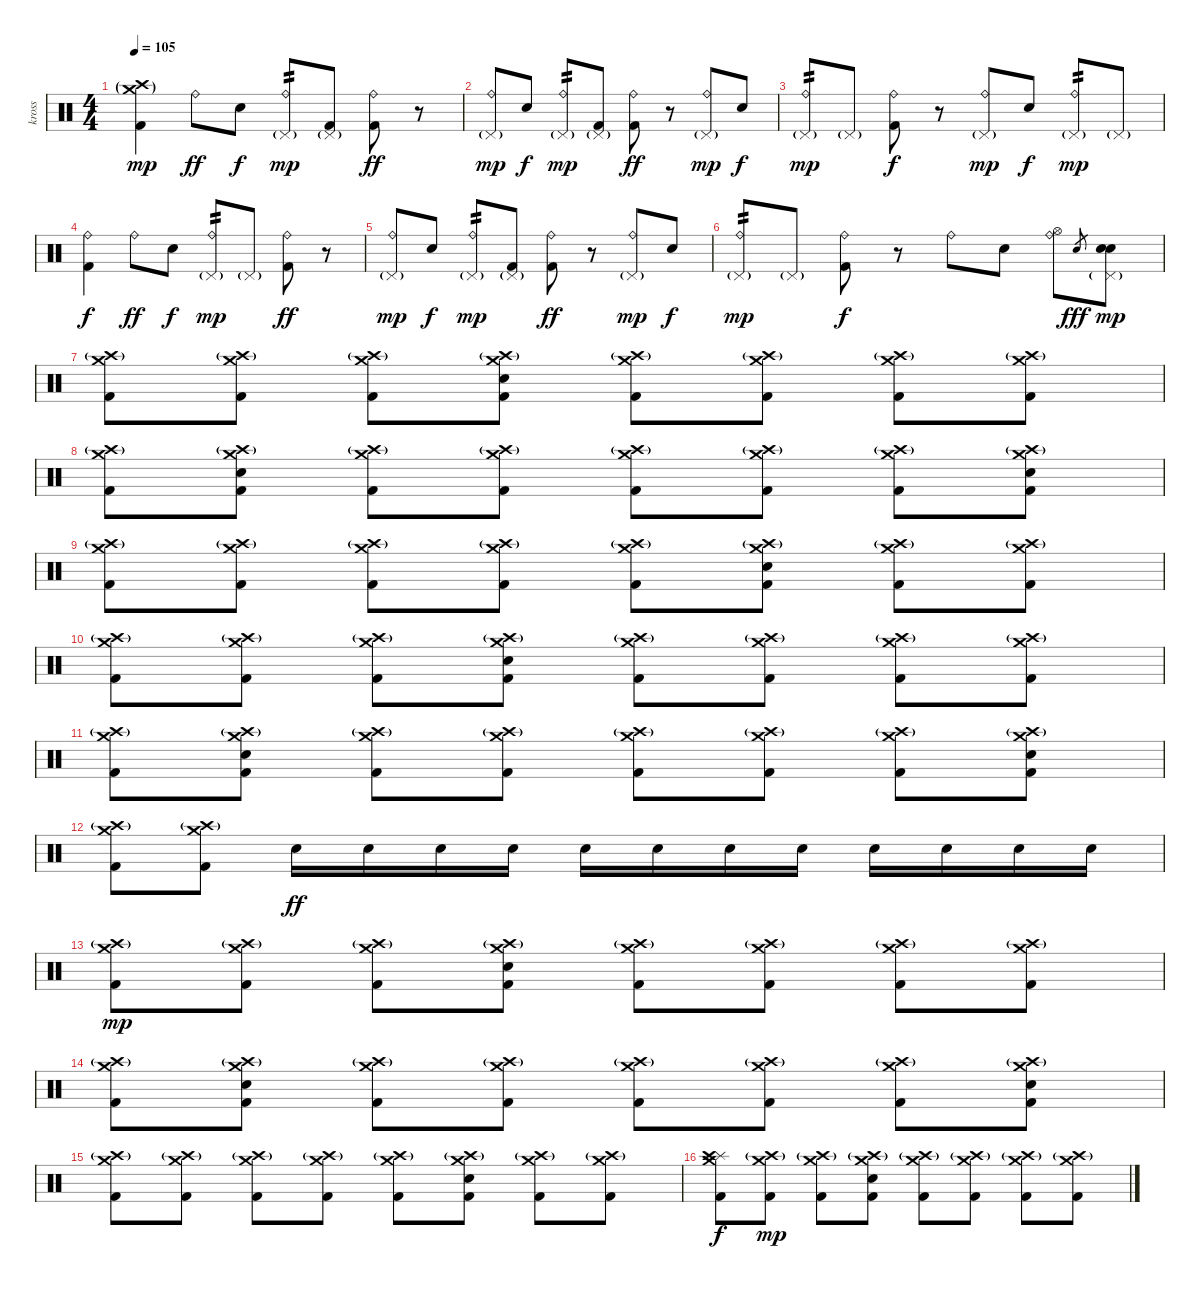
\track ("kross" "kross") {instrument percussion}
\staff {score}
\articulation defaults
\ts (4 4)
\tempo 105
\clef neutral
\ks c
("Crash medium (hit)"{g} "Crash high (hit)"{g} "Kick (hit) 2").4{dy mp} "Ride (bell)".8{dy ff} "Electric Snare (hit)".8{dy f} ("Ride (bell)" "Pedal Hi-Hat (hit)"{g}).8{tp 2 dy mp} ("Pedal Hi-Hat (hit)"{g} "Kick (hit) 2").8 ("Ride (bell)" "Kick (hit) 2").8{dy ff} r.8 |
("Ride (bell)" "Pedal Hi-Hat (hit)"{g}).8{dy mp} "Electric Snare (hit)".8{dy f} ("Ride (bell)" "Pedal Hi-Hat (hit)"{g}).8{tp 2 dy mp} ("Pedal Hi-Hat (hit)"{g} "Kick (hit) 2").8 ("Ride (bell)" "Kick (hit) 2").8{dy ff} r.8 ("Ride (bell)" "Pedal Hi-Hat (hit)"{g}).8{dy mp} "Electric Snare (hit)".8{dy f} |
("Ride (bell)" "Pedal Hi-Hat (hit)"{g}).8{tp 2 dy mp} "Pedal Hi-Hat (hit)"{g}.8 ("Ride (bell)" "Kick (hit) 2").8{dy f} r.8 ("Ride (bell)" "Pedal Hi-Hat (hit)"{g}).8{dy mp} "Electric Snare (hit)".8{dy f} ("Ride (bell)" "Pedal Hi-Hat (hit)"{g}).8{tp 2 dy mp} "Pedal Hi-Hat (hit)"{g}.8 |
("Ride (bell)" "Kick (hit) 2").4{dy f} "Ride (bell)".8{dy ff} "Electric Snare (hit)".8{dy f} ("Ride (bell)" "Pedal Hi-Hat (hit)"{g}).8{tp 2 dy mp} "Pedal Hi-Hat (hit)"{g}.8 ("Ride (bell)" "Kick (hit) 2").8{dy ff} r.8 |
("Ride (bell)" "Pedal Hi-Hat (hit)"{g}).8{dy mp} "Electric Snare (hit)".8{dy f} ("Ride (bell)" "Pedal Hi-Hat (hit)"{g}).8{tp 2 dy mp} ("Pedal Hi-Hat (hit)"{g} "Kick (hit) 2").8 ("Ride (bell)" "Kick (hit) 2").8{dy ff} r.8 ("Ride (bell)" "Pedal Hi-Hat (hit)"{g}).8{dy mp} "Electric Snare (hit)".8{dy f} |
("Ride (bell)" "Pedal Hi-Hat (hit)"{g}).8{tp 2 dy mp} "Pedal Hi-Hat (hit)"{g}.8 ("Ride (bell)" "Kick (hit) 2").8{dy f} r.8 "Ride (bell)".8 "Electric Snare (hit)".8 ("Ride (bell)" "Hi-Hat (open)").8 "Electric Snare (hit)".8{gr dy fff} ("Pedal Hi-Hat (hit)"{g} "Electric Snare (hit)" "Electric Snare (hit)").8{dy mp} |
("Crash medium (hit)" "Crash high (hit)"{g} "Kick (hit) 2").8 ("Crash medium (hit)" "Crash high (hit)"{g} "Kick (hit) 2").8 ("Crash medium (hit)" "Crash high (hit)"{g} "Kick (hit) 2").8 ("Crash medium (hit)" "Crash high (hit)"{g} "Electric Snare (hit)" "Kick (hit) 2").8 ("Crash medium (hit)" "Crash high (hit)"{g} "Kick (hit) 2").8 ("Crash medium (hit)" "Crash high (hit)"{g} "Kick (hit) 2").8 ("Crash medium (hit)" "Crash high (hit)"{g} "Kick (hit) 2").8 ("Crash medium (hit)" "Crash high (hit)"{g} "Kick (hit) 2").8 |
("Crash medium (hit)" "Crash high (hit)"{g} "Kick (hit) 2").8 ("Crash medium (hit)" "Crash high (hit)"{g} "Electric Snare (hit)" "Kick (hit) 2").8 ("Crash medium (hit)" "Crash high (hit)"{g} "Kick (hit) 2").8 ("Crash medium (hit)" "Crash high (hit)"{g} "Kick (hit) 2").8 ("Crash medium (hit)" "Crash high (hit)"{g} "Kick (hit) 2").8 ("Crash medium (hit)" "Crash high (hit)"{g} "Kick (hit) 2").8 ("Crash medium (hit)" "Crash high (hit)"{g} "Kick (hit) 2").8 ("Crash medium (hit)" "Crash high (hit)"{g} "Electric Snare (hit)" "Kick (hit) 2").8 |
("Crash medium (hit)" "Crash high (hit)"{g} "Kick (hit) 2").8 ("Crash medium (hit)" "Crash high (hit)"{g} "Kick (hit) 2").8 ("Crash medium (hit)" "Crash high (hit)"{g} "Kick (hit) 2").8 ("Crash medium (hit)" "Crash high (hit)"{g} "Kick (hit) 2").8 ("Crash medium (hit)" "Crash high (hit)"{g} "Kick (hit) 2").8 ("Crash medium (hit)" "Crash high (hit)"{g} "Electric Snare (hit)" "Kick (hit) 2").8 ("Crash medium (hit)" "Crash high (hit)"{g} "Kick (hit) 2").8 ("Crash medium (hit)" "Crash high (hit)"{g} "Kick (hit) 2").8 |
("Crash medium (hit)" "Crash high (hit)"{g} "Kick (hit) 2").8 ("Crash medium (hit)" "Crash high (hit)"{g} "Kick (hit) 2").8 ("Crash medium (hit)" "Crash high (hit)"{g} "Kick (hit) 2").8 ("Crash medium (hit)" "Crash high (hit)"{g} "Electric Snare (hit)" "Kick (hit) 2").8 ("Crash medium (hit)" "Crash high (hit)"{g} "Kick (hit) 2").8 ("Crash medium (hit)" "Crash high (hit)"{g} "Kick (hit) 2").8 ("Crash medium (hit)" "Crash high (hit)"{g} "Kick (hit) 2").8 ("Crash medium (hit)" "Crash high (hit)"{g} "Kick (hit) 2").8 |
("Crash medium (hit)" "Crash high (hit)"{g} "Kick (hit) 2").8 ("Crash medium (hit)" "Crash high (hit)"{g} "Electric Snare (hit)" "Kick (hit) 2").8 ("Crash medium (hit)" "Crash high (hit)"{g} "Kick (hit) 2").8 ("Crash medium (hit)" "Crash high (hit)"{g} "Kick (hit) 2").8 ("Crash medium (hit)" "Crash high (hit)"{g} "Kick (hit) 2").8 ("Crash medium (hit)" "Crash high (hit)"{g} "Kick (hit) 2").8 ("Crash medium (hit)" "Crash high (hit)"{g} "Kick (hit) 2").8 ("Crash medium (hit)" "Crash high (hit)"{g} "Electric Snare (hit)" "Kick (hit) 2").8 |
("Crash medium (hit)" "Crash high (hit)"{g} "Kick (hit) 2").8 ("Crash medium (hit)" "Crash high (hit)"{g} "Kick (hit) 2").8 "Electric Snare (hit)".16{dy ff} "Electric Snare (hit)".16 "Electric Snare (hit)".16 "Electric Snare (hit)".16 "Electric Snare (hit)".16 "Electric Snare (hit)".16 "Electric Snare (hit)".16 "Electric Snare (hit)".16 "Electric Snare (hit)".16 "Electric Snare (hit)".16 "Electric Snare (hit)".16 "Electric Snare (hit)".16 |
("Crash medium (hit)" "Crash high (hit)"{g} "Kick (hit) 2").8{dy mp} ("Crash medium (hit)" "Crash high (hit)"{g} "Kick (hit) 2").8 ("Crash medium (hit)" "Crash high (hit)"{g} "Kick (hit) 2").8 ("Crash medium (hit)" "Crash high (hit)"{g} "Electric Snare (hit)" "Kick (hit) 2").8 ("Crash medium (hit)" "Crash high (hit)"{g} "Kick (hit) 2").8 ("Crash medium (hit)" "Crash high (hit)"{g} "Kick (hit) 2").8 ("Crash medium (hit)" "Crash high (hit)"{g} "Kick (hit) 2").8 ("Crash medium (hit)" "Crash high (hit)"{g} "Kick (hit) 2").8 |
("Crash medium (hit)" "Crash high (hit)"{g} "Kick (hit) 2").8 ("Crash medium (hit)" "Crash high (hit)"{g} "Electric Snare (hit)" "Kick (hit) 2").8 ("Crash medium (hit)" "Crash high (hit)"{g} "Kick (hit) 2").8 ("Crash medium (hit)" "Crash high (hit)"{g} "Kick (hit) 2").8 ("Crash medium (hit)" "Crash high (hit)"{g} "Kick (hit) 2").8 ("Crash medium (hit)" "Crash high (hit)"{g} "Kick (hit) 2").8 ("Crash medium (hit)" "Crash high (hit)"{g} "Kick (hit) 2").8 ("Crash medium (hit)" "Crash high (hit)"{g} "Electric Snare (hit)" "Kick (hit) 2").8 |
("Crash medium (hit)" "Crash high (hit)"{g} "Kick (hit) 2").8 ("Crash medium (hit)" "Crash high (hit)"{g} "Kick (hit) 2").8 ("Crash medium (hit)" "Crash high (hit)"{g} "Kick (hit) 2").8 ("Crash medium (hit)" "Crash high (hit)"{g} "Kick (hit) 2").8 ("Crash medium (hit)" "Crash high (hit)"{g} "Kick (hit) 2").8 ("Crash medium (hit)" "Crash high (hit)"{g} "Electric Snare (hit)" "Kick (hit) 2").8 ("Crash medium (hit)" "Crash high (hit)"{g} "Kick (hit) 2").8 ("Crash medium (hit)" "Crash high (hit)"{g} "Kick (hit) 2").8 |
("Crash medium (hit)" "Splash (hit)" "Crash high (hit)" "Kick (hit) 2").8{dy f} ("Crash medium (hit)" "Crash high (hit)"{g} "Kick (hit) 2").8{dy mp} ("Crash medium (hit)" "Crash high (hit)"{g} "Kick (hit) 2").8 ("Crash medium (hit)" "Crash high (hit)"{g} "Electric Snare (hit)" "Kick (hit) 2").8 ("Crash medium (hit)" "Crash high (hit)"{g} "Kick (hit) 2").8 ("Crash medium (hit)" "Crash high (hit)"{g} "Kick (hit) 2").8 ("Crash medium (hit)" "Crash high (hit)"{g} "Kick (hit) 2").8 ("Crash medium (hit)" "Crash high (hit)"{g} "Kick (hit) 2").8
